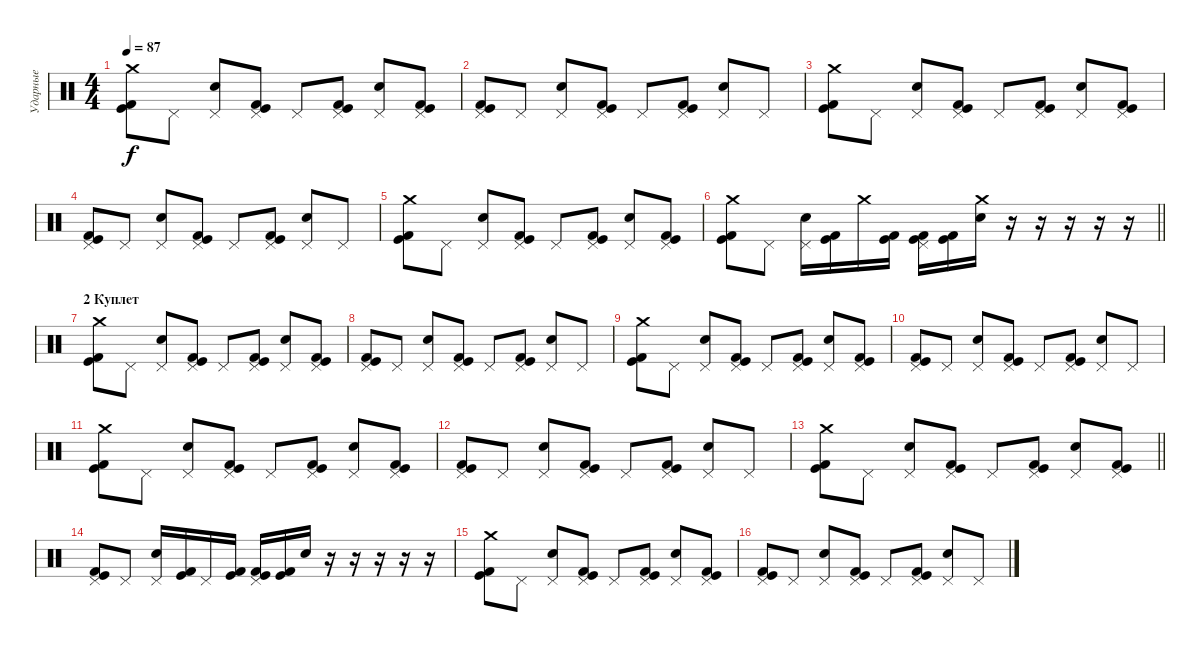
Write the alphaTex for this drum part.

\track ("Ударные" "Ударные") {instrument percussion}
\staff {score}
\articulation defaults
\ts (4 4)
\tempo 87
\clef neutral
\ks c
("Crash medium (hit)" "Kick (hit)" "Kick (hit) 2").8{dy f} "Pedal Hi-Hat (hit)".8 ("Pedal Hi-Hat (hit)" "Electric Snare (hit)").8 ("Pedal Hi-Hat (hit)" "Kick (hit)" "Kick (hit) 2").8 "Pedal Hi-Hat (hit)".8 ("Pedal Hi-Hat (hit)" "Kick (hit)" "Kick (hit) 2").8 ("Pedal Hi-Hat (hit)" "Electric Snare (hit)").8 ("Pedal Hi-Hat (hit)" "Kick (hit)" "Kick (hit) 2").8 |
("Pedal Hi-Hat (hit)" "Kick (hit)" "Kick (hit) 2").8 "Pedal Hi-Hat (hit)".8 ("Pedal Hi-Hat (hit)" "Electric Snare (hit)").8 ("Pedal Hi-Hat (hit)" "Kick (hit)" "Kick (hit) 2").8 "Pedal Hi-Hat (hit)".8 ("Pedal Hi-Hat (hit)" "Kick (hit)" "Kick (hit) 2").8 ("Pedal Hi-Hat (hit)" "Electric Snare (hit)").8 "Pedal Hi-Hat (hit)".8 |
("Crash medium (hit)" "Kick (hit)" "Kick (hit) 2").8 "Pedal Hi-Hat (hit)".8 ("Pedal Hi-Hat (hit)" "Electric Snare (hit)").8 ("Pedal Hi-Hat (hit)" "Kick (hit)" "Kick (hit) 2").8 "Pedal Hi-Hat (hit)".8 ("Pedal Hi-Hat (hit)" "Kick (hit)" "Kick (hit) 2").8 ("Pedal Hi-Hat (hit)" "Electric Snare (hit)").8 ("Pedal Hi-Hat (hit)" "Kick (hit)" "Kick (hit) 2").8 |
("Pedal Hi-Hat (hit)" "Kick (hit)" "Kick (hit) 2").8 "Pedal Hi-Hat (hit)".8 ("Pedal Hi-Hat (hit)" "Electric Snare (hit)").8 ("Pedal Hi-Hat (hit)" "Kick (hit)" "Kick (hit) 2").8 "Pedal Hi-Hat (hit)".8 ("Pedal Hi-Hat (hit)" "Kick (hit)" "Kick (hit) 2").8 ("Pedal Hi-Hat (hit)" "Electric Snare (hit)").8 "Pedal Hi-Hat (hit)".8 |
("Crash medium (hit)" "Kick (hit)" "Kick (hit) 2").8 "Pedal Hi-Hat (hit)".8 ("Pedal Hi-Hat (hit)" "Electric Snare (hit)").8 ("Pedal Hi-Hat (hit)" "Kick (hit)" "Kick (hit) 2").8 "Pedal Hi-Hat (hit)".8 ("Pedal Hi-Hat (hit)" "Kick (hit)" "Kick (hit) 2").8 ("Pedal Hi-Hat (hit)" "Electric Snare (hit)").8 ("Pedal Hi-Hat (hit)" "Kick (hit)" "Kick (hit) 2").8 |
\barLineRight lightlight
("Crash medium (hit)" "Kick (hit)" "Kick (hit) 2").8 "Pedal Hi-Hat (hit)".8 ("Pedal Hi-Hat (hit)" "Electric Snare (hit)").16 ("Kick (hit)" "Kick (hit) 2").16 "Crash medium (hit)".16 ("Kick (hit)" "Kick (hit) 2").16 ("Pedal Hi-Hat (hit)" "Kick (hit)" "Kick (hit) 2").16 ("Kick (hit)" "Kick (hit) 2").16 ("Crash medium (hit)" "Electric Snare (hit)").16 r.16 r.16 r.16 r.16 r.16 |
\section ("" "2 Куплет")
("Crash medium (hit)" "Kick (hit)" "Kick (hit) 2").8 "Pedal Hi-Hat (hit)".8 ("Pedal Hi-Hat (hit)" "Electric Snare (hit)").8 ("Pedal Hi-Hat (hit)" "Kick (hit)" "Kick (hit) 2").8 "Pedal Hi-Hat (hit)".8 ("Pedal Hi-Hat (hit)" "Kick (hit)" "Kick (hit) 2").8 ("Pedal Hi-Hat (hit)" "Electric Snare (hit)").8 ("Pedal Hi-Hat (hit)" "Kick (hit)" "Kick (hit) 2").8 |
("Pedal Hi-Hat (hit)" "Kick (hit)" "Kick (hit) 2").8 "Pedal Hi-Hat (hit)".8 ("Pedal Hi-Hat (hit)" "Electric Snare (hit)").8 ("Pedal Hi-Hat (hit)" "Kick (hit)" "Kick (hit) 2").8 "Pedal Hi-Hat (hit)".8 ("Pedal Hi-Hat (hit)" "Kick (hit)" "Kick (hit) 2").8 ("Pedal Hi-Hat (hit)" "Electric Snare (hit)").8 "Pedal Hi-Hat (hit)".8 |
("Crash medium (hit)" "Kick (hit)" "Kick (hit) 2").8 "Pedal Hi-Hat (hit)".8 ("Pedal Hi-Hat (hit)" "Electric Snare (hit)").8 ("Pedal Hi-Hat (hit)" "Kick (hit)" "Kick (hit) 2").8 "Pedal Hi-Hat (hit)".8 ("Pedal Hi-Hat (hit)" "Kick (hit)" "Kick (hit) 2").8 ("Pedal Hi-Hat (hit)" "Electric Snare (hit)").8 ("Pedal Hi-Hat (hit)" "Kick (hit)" "Kick (hit) 2").8 |
("Pedal Hi-Hat (hit)" "Kick (hit)" "Kick (hit) 2").8 "Pedal Hi-Hat (hit)".8 ("Pedal Hi-Hat (hit)" "Electric Snare (hit)").8 ("Pedal Hi-Hat (hit)" "Kick (hit)" "Kick (hit) 2").8 "Pedal Hi-Hat (hit)".8 ("Pedal Hi-Hat (hit)" "Kick (hit)" "Kick (hit) 2").8 ("Pedal Hi-Hat (hit)" "Electric Snare (hit)").8 "Pedal Hi-Hat (hit)".8 |
("Crash medium (hit)" "Kick (hit)" "Kick (hit) 2").8 "Pedal Hi-Hat (hit)".8 ("Pedal Hi-Hat (hit)" "Electric Snare (hit)").8 ("Pedal Hi-Hat (hit)" "Kick (hit)" "Kick (hit) 2").8 "Pedal Hi-Hat (hit)".8 ("Pedal Hi-Hat (hit)" "Kick (hit)" "Kick (hit) 2").8 ("Pedal Hi-Hat (hit)" "Electric Snare (hit)").8 ("Pedal Hi-Hat (hit)" "Kick (hit)" "Kick (hit) 2").8 |
("Pedal Hi-Hat (hit)" "Kick (hit)" "Kick (hit) 2").8 "Pedal Hi-Hat (hit)".8 ("Pedal Hi-Hat (hit)" "Electric Snare (hit)").8 ("Pedal Hi-Hat (hit)" "Kick (hit)" "Kick (hit) 2").8 "Pedal Hi-Hat (hit)".8 ("Pedal Hi-Hat (hit)" "Kick (hit)" "Kick (hit) 2").8 ("Pedal Hi-Hat (hit)" "Electric Snare (hit)").8 "Pedal Hi-Hat (hit)".8 |
\barLineRight lightlight
("Crash medium (hit)" "Kick (hit)" "Kick (hit) 2").8 "Pedal Hi-Hat (hit)".8 ("Pedal Hi-Hat (hit)" "Electric Snare (hit)").8 ("Pedal Hi-Hat (hit)" "Kick (hit)" "Kick (hit) 2").8 "Pedal Hi-Hat (hit)".8 ("Pedal Hi-Hat (hit)" "Kick (hit)" "Kick (hit) 2").8 ("Pedal Hi-Hat (hit)" "Electric Snare (hit)").8 ("Pedal Hi-Hat (hit)" "Kick (hit)" "Kick (hit) 2").8 |
("Pedal Hi-Hat (hit)" "Kick (hit)" "Kick (hit) 2").8 "Pedal Hi-Hat (hit)".8 ("Pedal Hi-Hat (hit)" "Electric Snare (hit)").16 ("Kick (hit)" "Kick (hit) 2").16 "Pedal Hi-Hat (hit)".16 ("Kick (hit)" "Kick (hit) 2").16 ("Pedal Hi-Hat (hit)" "Kick (hit)" "Kick (hit) 2").16 ("Kick (hit)" "Kick (hit) 2").16 "Electric Snare (hit)".16 r.16 r.16 r.16 r.16 r.16 |
("Crash medium (hit)" "Kick (hit)" "Kick (hit) 2").8 "Pedal Hi-Hat (hit)".8 ("Pedal Hi-Hat (hit)" "Electric Snare (hit)").8 ("Pedal Hi-Hat (hit)" "Kick (hit)" "Kick (hit) 2").8 "Pedal Hi-Hat (hit)".8 ("Pedal Hi-Hat (hit)" "Kick (hit)" "Kick (hit) 2").8 ("Pedal Hi-Hat (hit)" "Electric Snare (hit)").8 ("Pedal Hi-Hat (hit)" "Kick (hit)" "Kick (hit) 2").8 |
("Pedal Hi-Hat (hit)" "Kick (hit)" "Kick (hit) 2").8 "Pedal Hi-Hat (hit)".8 ("Pedal Hi-Hat (hit)" "Electric Snare (hit)").8 ("Pedal Hi-Hat (hit)" "Kick (hit)" "Kick (hit) 2").8 "Pedal Hi-Hat (hit)".8 ("Pedal Hi-Hat (hit)" "Kick (hit)" "Kick (hit) 2").8 ("Pedal Hi-Hat (hit)" "Electric Snare (hit)").8 "Pedal Hi-Hat (hit)".8
